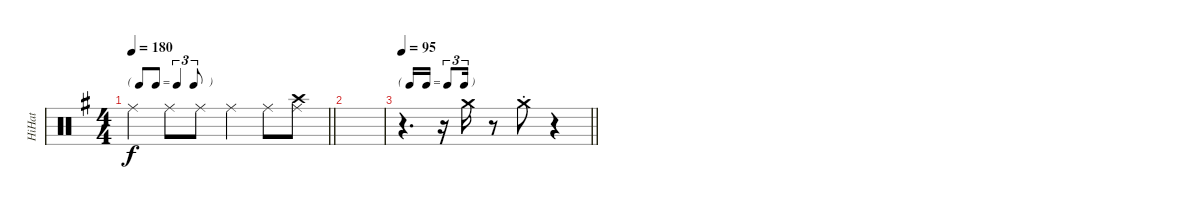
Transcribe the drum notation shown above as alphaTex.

\track ("HiHat" "HiHat") {instrument percussion}
\staff {score}
\articulation defaults
\ts (4 4)
\tf triplet8th
\tempo 180
\clef neutral
\barLineRight lightlight
\ks eminor "Ride (middle)".4{dy f} "Ride (middle)".8 "Ride (middle)".8 "Ride (middle)".4 "Ride (middle)".8
("Crash high (hit)" "Ride (middle)").8 |
|
\tf triplet16th
\tempo 95
\barLineRight lightlight
r.4{d} r.16 "Crash medium (hit)".16 r.8 "Crash medium (hit)"{st}.8 r.4
